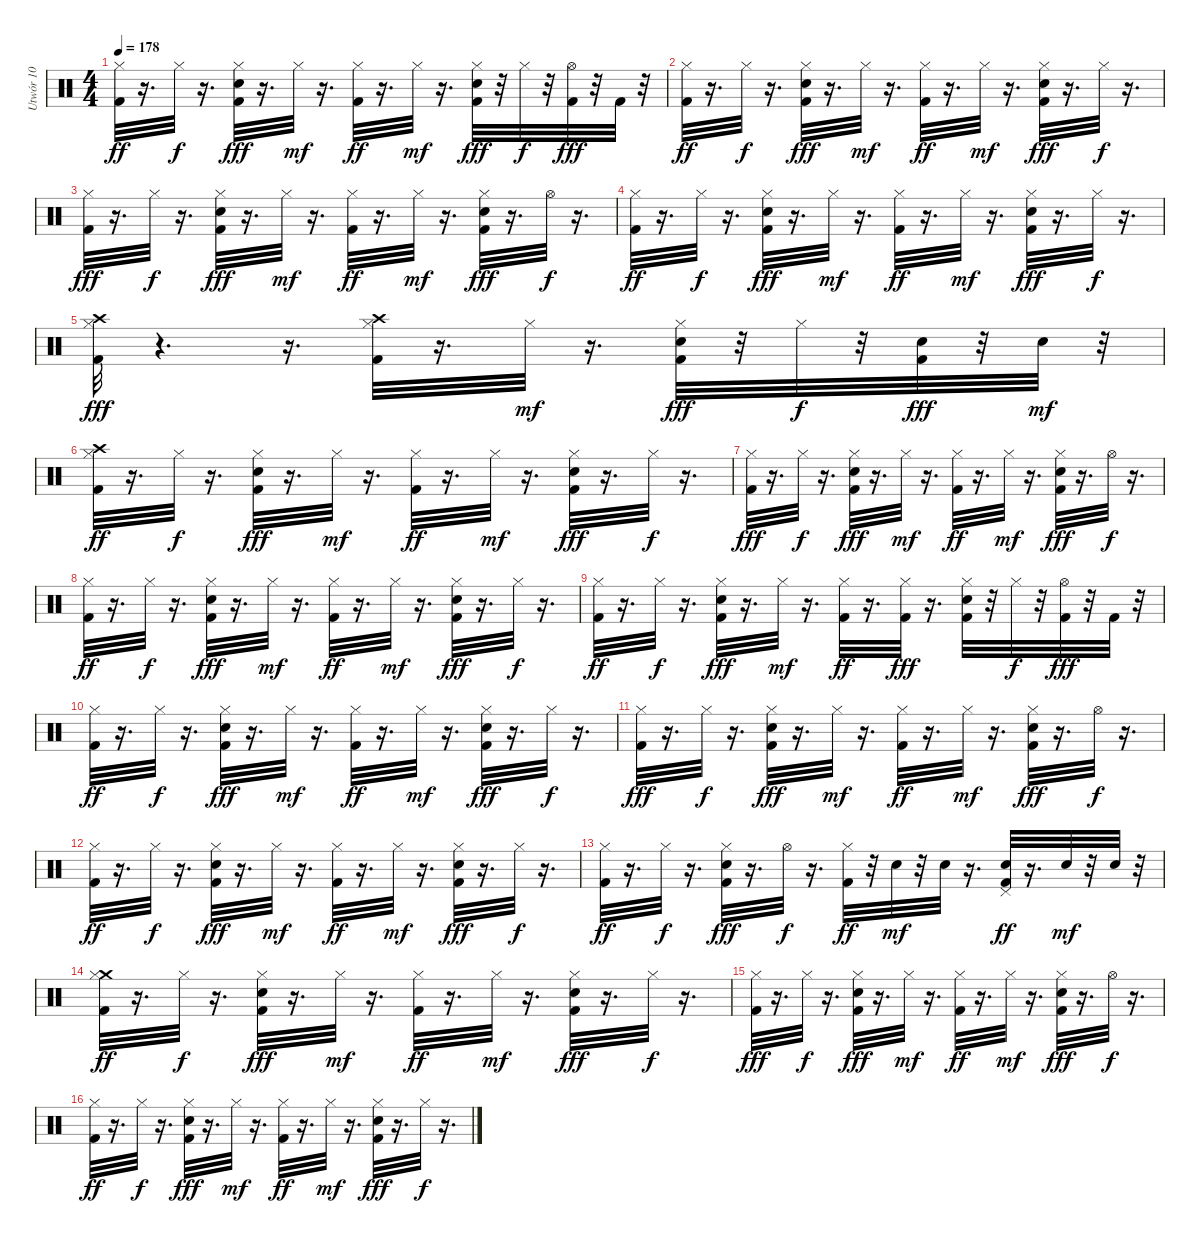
\track ("Utwór 10" "Utwór 10") {instrument percussion}
\staff {score}
\articulation defaults
\ts (4 4)
\tempo 178
\clef neutral
\ks c
("Kick (hit) 2" "Hi-Hat (closed)").32{dy ff} r.16{d} "Hi-Hat (closed)".32{dy f} r.16{d} ("Kick (hit) 2" "Electric Snare (hit)" "Hi-Hat (closed)").32{dy fff} r.16{d} "Hi-Hat (closed)".32{dy mf} r.16{d} ("Kick (hit) 2" "Hi-Hat (closed)").32{dy ff} r.16{d} "Hi-Hat (closed)".32{dy mf} r.16{d} ("Kick (hit) 2" "Electric Snare (hit)" "Hi-Hat (closed)").32{dy fff} r.32 "Hi-Hat (closed)".32{dy f} r.32 ("Hi-Hat (open)" "Kick (hit) 2").32{dy fff} r.32 "Kick (hit) 2".32 r.32 |
("Kick (hit) 2" "Hi-Hat (closed)").32{dy ff} r.16{d} "Hi-Hat (closed)".32{dy f} r.16{d} ("Kick (hit) 2" "Electric Snare (hit)" "Hi-Hat (closed)").32{dy fff} r.16{d} "Hi-Hat (closed)".32{dy mf} r.16{d} ("Kick (hit) 2" "Hi-Hat (closed)").32{dy ff} r.16{d} "Hi-Hat (closed)".32{dy mf} r.16{d} ("Kick (hit) 2" "Electric Snare (hit)" "Hi-Hat (closed)").32{dy fff} r.16{d} "Hi-Hat (closed)".32{dy f} r.16{d} |
("Kick (hit) 2" "Hi-Hat (closed)").32{dy fff} r.16{d} "Hi-Hat (closed)".32{dy f} r.16{d} ("Kick (hit) 2" "Electric Snare (hit)" "Hi-Hat (closed)").32{dy fff} r.16{d} "Hi-Hat (closed)".32{dy mf} r.16{d} ("Kick (hit) 2" "Hi-Hat (closed)").32{dy ff} r.16{d} "Hi-Hat (closed)".32{dy mf} r.16{d} ("Kick (hit) 2" "Electric Snare (hit)" "Hi-Hat (closed)").32{dy fff} r.16{d} "Hi-Hat (open)".32{dy f} r.16{d} |
("Kick (hit) 2" "Hi-Hat (closed)").32{dy ff} r.16{d} "Hi-Hat (closed)".32{dy f} r.16{d} ("Kick (hit) 2" "Electric Snare (hit)" "Hi-Hat (closed)").32{dy fff} r.16{d} "Hi-Hat (closed)".32{dy mf} r.16{d} ("Kick (hit) 2" "Hi-Hat (closed)").32{dy ff} r.16{d} "Hi-Hat (closed)".32{dy mf} r.16{d} ("Kick (hit) 2" "Electric Snare (hit)" "Hi-Hat (closed)").32{dy fff} r.16{d} "Hi-Hat (closed)".32{dy f} r.16{d} |
("Kick (hit) 2" "Hi-Hat (closed)" "Crash high (hit)").32{dy fff} r.4{d} r.16{d} ("Kick (hit) 2" "Hi-Hat (closed)" "Crash high (hit)").32 r.16{d} "Hi-Hat (closed)".32{dy mf} r.16{d} ("Kick (hit) 2" "Electric Snare (hit)" "Hi-Hat (closed)").32{dy fff} r.32 "Hi-Hat (closed)".32{dy f} r.32 ("Electric Snare (hit)" "Kick (hit) 2").32{dy fff} r.32 "Electric Snare (hit)".32{dy mf} r.32 |
("Crash high (hit)" "Kick (hit) 2" "Hi-Hat (closed)").32{dy ff} r.16{d} "Hi-Hat (closed)".32{dy f} r.16{d} ("Kick (hit) 2" "Electric Snare (hit)" "Hi-Hat (closed)").32{dy fff} r.16{d} "Hi-Hat (closed)".32{dy mf} r.16{d} ("Kick (hit) 2" "Hi-Hat (closed)").32{dy ff} r.16{d} "Hi-Hat (closed)".32{dy mf} r.16{d} ("Kick (hit) 2" "Electric Snare (hit)" "Hi-Hat (closed)").32{dy fff} r.16{d} "Hi-Hat (closed)".32{dy f} r.16{d} |
("Kick (hit) 2" "Hi-Hat (closed)").32{dy fff} r.16{d} "Hi-Hat (closed)".32{dy f} r.16{d} ("Kick (hit) 2" "Electric Snare (hit)" "Hi-Hat (closed)").32{dy fff} r.16{d} "Hi-Hat (closed)".32{dy mf} r.16{d} ("Kick (hit) 2" "Hi-Hat (closed)").32{dy ff} r.16{d} "Hi-Hat (closed)".32{dy mf} r.16{d} ("Kick (hit) 2" "Electric Snare (hit)" "Hi-Hat (closed)").32{dy fff} r.16{d} "Hi-Hat (open)".32{dy f} r.16{d} |
("Kick (hit) 2" "Hi-Hat (closed)").32{dy ff} r.16{d} "Hi-Hat (closed)".32{dy f} r.16{d} ("Kick (hit) 2" "Electric Snare (hit)" "Hi-Hat (closed)").32{dy fff} r.16{d} "Hi-Hat (closed)".32{dy mf} r.16{d} ("Kick (hit) 2" "Hi-Hat (closed)").32{dy ff} r.16{d} "Hi-Hat (closed)".32{dy mf} r.16{d} ("Kick (hit) 2" "Electric Snare (hit)" "Hi-Hat (closed)").32{dy fff} r.16{d} "Hi-Hat (closed)".32{dy f} r.16{d} |
("Kick (hit) 2" "Hi-Hat (closed)").32{dy ff} r.16{d} "Hi-Hat (closed)".32{dy f} r.16{d} ("Kick (hit) 2" "Electric Snare (hit)" "Hi-Hat (closed)").32{dy fff} r.16{d} "Hi-Hat (closed)".32{dy mf} r.16{d} ("Kick (hit) 2" "Hi-Hat (closed)").32{dy ff} r.16{d} ("Hi-Hat (closed)" "Kick (hit) 2").32{dy fff} r.16{d} ("Kick (hit) 2" "Electric Snare (hit)" "Hi-Hat (closed)").32 r.32 "Hi-Hat (closed)".32{dy f} r.32 ("Hi-Hat (open)" "Kick (hit) 2").32{dy fff} r.32 "Kick (hit) 2".32 r.32 |
("Kick (hit) 2" "Hi-Hat (closed)").32{dy ff} r.16{d} "Hi-Hat (closed)".32{dy f} r.16{d} ("Kick (hit) 2" "Electric Snare (hit)" "Hi-Hat (closed)").32{dy fff} r.16{d} "Hi-Hat (closed)".32{dy mf} r.16{d} ("Kick (hit) 2" "Hi-Hat (closed)").32{dy ff} r.16{d} "Hi-Hat (closed)".32{dy mf} r.16{d} ("Kick (hit) 2" "Electric Snare (hit)" "Hi-Hat (closed)").32{dy fff} r.16{d} "Hi-Hat (closed)".32{dy f} r.16{d} |
("Kick (hit) 2" "Hi-Hat (closed)").32{dy fff} r.16{d} "Hi-Hat (closed)".32{dy f} r.16{d} ("Kick (hit) 2" "Electric Snare (hit)" "Hi-Hat (closed)").32{dy fff} r.16{d} "Hi-Hat (closed)".32{dy mf} r.16{d} ("Kick (hit) 2" "Hi-Hat (closed)").32{dy ff} r.16{d} "Hi-Hat (closed)".32{dy mf} r.16{d} ("Kick (hit) 2" "Electric Snare (hit)" "Hi-Hat (closed)").32{dy fff} r.16{d} "Hi-Hat (open)".32{dy f} r.16{d} |
("Kick (hit) 2" "Hi-Hat (closed)").32{dy ff} r.16{d} "Hi-Hat (closed)".32{dy f} r.16{d} ("Kick (hit) 2" "Electric Snare (hit)" "Hi-Hat (closed)").32{dy fff} r.16{d} "Hi-Hat (closed)".32{dy mf} r.16{d} ("Kick (hit) 2" "Hi-Hat (closed)").32{dy ff} r.16{d} "Hi-Hat (closed)".32{dy mf} r.16{d} ("Kick (hit) 2" "Electric Snare (hit)" "Hi-Hat (closed)").32{dy fff} r.16{d} "Hi-Hat (closed)".32{dy f} r.16{d} |
("Kick (hit) 2" "Hi-Hat (closed)").32{dy ff} r.16{d} "Hi-Hat (closed)".32{dy f} r.16{d} ("Kick (hit) 2" "Electric Snare (hit)" "Hi-Hat (closed)").32{dy fff} r.16{d} "Hi-Hat (open)".32{dy f} r.16{d} ("Kick (hit) 2" "Hi-Hat (closed)").32{dy ff} r.32 "Electric Snare (hit)".32{dy mf} r.32 "Electric Snare (hit)".32 r.16{d} ("Kick (hit) 2" "Electric Snare (hit)" "Pedal Hi-Hat (hit)").32{dy ff} r.16{d} "Electric Snare (hit)".32{dy mf} r.32 "Electric Snare (hit)".32 r.32 |
("Crash medium (hit)" "Kick (hit) 2" "Hi-Hat (closed)").32{dy ff} r.16{d} "Hi-Hat (closed)".32{dy f} r.16{d} ("Kick (hit) 2" "Electric Snare (hit)" "Hi-Hat (closed)").32{dy fff} r.16{d} "Hi-Hat (closed)".32{dy mf} r.16{d} ("Kick (hit) 2" "Hi-Hat (closed)").32{dy ff} r.16{d} "Hi-Hat (closed)".32{dy mf} r.16{d} ("Kick (hit) 2" "Electric Snare (hit)" "Hi-Hat (closed)").32{dy fff} r.16{d} "Hi-Hat (closed)".32{dy f} r.16{d} |
("Kick (hit) 2" "Hi-Hat (closed)").32{dy fff} r.16{d} "Hi-Hat (closed)".32{dy f} r.16{d} ("Kick (hit) 2" "Electric Snare (hit)" "Hi-Hat (closed)").32{dy fff} r.16{d} "Hi-Hat (closed)".32{dy mf} r.16{d} ("Kick (hit) 2" "Hi-Hat (closed)").32{dy ff} r.16{d} "Hi-Hat (closed)".32{dy mf} r.16{d} ("Kick (hit) 2" "Electric Snare (hit)" "Hi-Hat (closed)").32{dy fff} r.16{d} "Hi-Hat (open)".32{dy f} r.16{d} |
("Kick (hit) 2" "Hi-Hat (closed)").32{dy ff} r.16{d} "Hi-Hat (closed)".32{dy f} r.16{d} ("Kick (hit) 2" "Electric Snare (hit)" "Hi-Hat (closed)").32{dy fff} r.16{d} "Hi-Hat (closed)".32{dy mf} r.16{d} ("Kick (hit) 2" "Hi-Hat (closed)").32{dy ff} r.16{d} "Hi-Hat (closed)".32{dy mf} r.16{d} ("Kick (hit) 2" "Electric Snare (hit)" "Hi-Hat (closed)").32{dy fff} r.16{d} "Hi-Hat (closed)".32{dy f} r.16{d}
